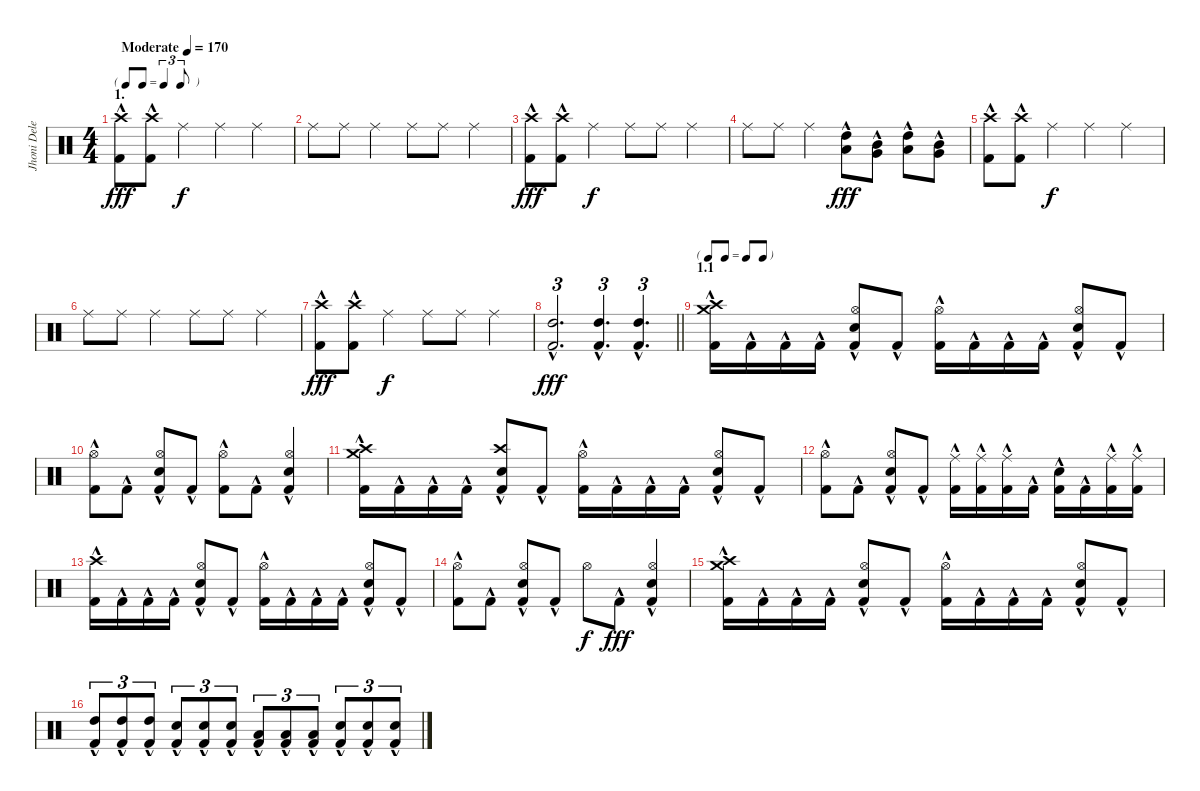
\track ("Jhoni Delenger" "Jhoni Dele") {instrument percussion}
\staff {score}
\articulation defaults
\ts (4 4)
\tf triplet8th
\section ("" "1.")
\tempo (170 "Moderate")
\clef neutral
\ks c
("Kick (hit) 2"{hac} "Crash high (hit)").8{dy fff} ("Kick (hit) 2"{hac} "Crash high (hit)").8 "Ride (middle)".4{dy f} "Ride (middle)".4 "Ride (middle)".4 |
"Ride (middle)".8 "Ride (middle)".8 "Ride (middle)".4 "Ride (middle)".8 "Ride (middle)".8 "Ride (middle)".4 |
("Kick (hit) 2"{hac} "Crash high (hit)").8{dy fff} ("Kick (hit) 2"{hac} "Crash high (hit)").8 "Ride (middle)".4{dy f} "Ride (middle)".8 "Ride (middle)".8 "Ride (middle)".4 |
"Ride (middle)".8 "Ride (middle)".8 "Ride (middle)".4 ("High Tom (hit)" "Low Tom (hit)"{hac}).8{dy fff} ("Mid Tom (hit)"{hac} "Very Low Tom (hit)"{hac}).8 ("High Tom (hit)"{hac} "Low Tom (hit)"{hac}).8 ("Mid Tom (hit)"{hac} "Very Low Tom (hit)"{hac}).8 |
("Kick (hit) 2"{hac} "Crash high (hit)").8 ("Kick (hit) 2"{hac} "Crash high (hit)").8 "Ride (middle)".4{dy f} "Ride (middle)".4 "Ride (middle)".4 |
"Ride (middle)".8 "Ride (middle)".8 "Ride (middle)".4 "Ride (middle)".8 "Ride (middle)".8 "Ride (middle)".4 |
("Kick (hit) 2"{hac} "Crash high (hit)").8{dy fff} ("Kick (hit) 2"{hac} "Crash high (hit)").8 "Ride (middle)".4{dy f} "Ride (middle)".8 "Ride (middle)".8 "Ride (middle)".4 |
\barLineRight lightlight
("Kick (hit) 2"{hac} "High Tom (hit)").2{d tu (3 2) dy fff} ("Kick (hit) 2"{hac} "High Tom (hit)").4{d tu (3 2)} ("Kick (hit) 2"{hac} "High Tom (hit)").4{d tu (3 2)} |
\tf none
\section ("" "1.1")
("Crash high (hit)" "Kick (hit) 2"{hac} "Crash medium (hit)").16{volume 16} "Kick (hit) 2"{hac}.16 "Kick (hit) 2"{hac}.16 "Kick (hit) 2"{hac}.16 ("Hi-Hat (open)" "Snare (hit) 2" "Kick (hit) 2"{hac}).8 "Kick (hit) 2"{hac}.8 ("Hi-Hat (open)" "Kick (hit) 2"{hac}).16 "Kick (hit) 2"{hac}.16 "Kick (hit) 2"{hac}.16 "Kick (hit) 2"{hac}.16 ("Hi-Hat (open)" "Snare (hit) 2" "Kick (hit) 2"{hac}).8 "Kick (hit) 2"{hac}.8 |
("Hi-Hat (open)" "Kick (hit) 2"{hac}).8 "Kick (hit) 2"{hac}.8 ("Hi-Hat (open)" "Snare (hit) 2" "Kick (hit) 2"{hac}).8 "Kick (hit) 2"{hac}.8 ("Hi-Hat (open)" "Kick (hit) 2"{hac}).8 "Kick (hit) 2"{hac}.8 ("Hi-Hat (open)" "Snare (hit) 2" "Kick (hit) 2"{hac}).4 |
("Crash high (hit)" "Kick (hit) 2"{hac} "Crash medium (hit)").16 "Kick (hit) 2"{hac}.16 "Kick (hit) 2"{hac}.16 "Kick (hit) 2"{hac}.16 ("Crash high (hit)" "Snare (hit) 2" "Kick (hit) 2"{hac}).8 "Kick (hit) 2"{hac}.8 ("Hi-Hat (open)" "Kick (hit) 2"{hac}).16 "Kick (hit) 2"{hac}.16 "Kick (hit) 2"{hac}.16 "Kick (hit) 2"{hac}.16 ("Hi-Hat (open)" "Snare (hit) 2" "Kick (hit) 2"{hac}).8 "Kick (hit) 2"{hac}.8 |
("Hi-Hat (open)" "Kick (hit) 2"{hac}).8 "Kick (hit) 2"{hac}.8 ("Hi-Hat (open)" "Snare (hit) 2" "Kick (hit) 2"{hac}).8 "Kick (hit) 2"{hac}.8 ("Ride (middle)" "Kick (hit) 2"{hac}).16 ("Kick (hit) 2"{hac} "Ride (middle)").16 ("Kick (hit) 2"{hac} "Ride (middle)").16 "Kick (hit) 2"{hac}.16 ("Snare (hit) 2" "Kick (hit) 2"{hac}).16 "Kick (hit) 2"{hac}.16 ("Kick (hit) 2"{hac} "Ride (middle)").16 ("Kick (hit) 2"{hac} "Ride (middle)").16 |
("Crash high (hit)" "Kick (hit) 2"{hac}).16 "Kick (hit) 2"{hac}.16 "Kick (hit) 2"{hac}.16 "Kick (hit) 2"{hac}.16 ("Hi-Hat (open)" "Snare (hit) 2" "Kick (hit) 2"{hac}).8 "Kick (hit) 2"{hac}.8 ("Hi-Hat (open)" "Kick (hit) 2"{hac}).16 "Kick (hit) 2"{hac}.16 "Kick (hit) 2"{hac}.16 "Kick (hit) 2"{hac}.16 ("Hi-Hat (open)" "Snare (hit) 2" "Kick (hit) 2"{hac}).8 "Kick (hit) 2"{hac}.8 |
("Hi-Hat (open)" "Kick (hit) 2"{hac}).8 "Kick (hit) 2"{hac}.8 ("Hi-Hat (open)" "Snare (hit) 2" "Kick (hit) 2"{hac}).8 "Kick (hit) 2"{hac}.8 "Hi-Hat (open)".8{dy f} "Kick (hit) 2"{hac}.8{dy fff} ("Hi-Hat (open)" "Snare (hit) 2" "Kick (hit) 2"{hac}).4 |
("Crash high (hit)" "Kick (hit) 2"{hac} "Crash medium (hit)").16 "Kick (hit) 2"{hac}.16 "Kick (hit) 2"{hac}.16 "Kick (hit) 2"{hac}.16 ("Hi-Hat (open)" "Snare (hit) 2" "Kick (hit) 2"{hac}).8 "Kick (hit) 2"{hac}.8 ("Hi-Hat (open)" "Kick (hit) 2"{hac}).16 "Kick (hit) 2"{hac}.16 "Kick (hit) 2"{hac}.16 "Kick (hit) 2"{hac}.16 ("Hi-Hat (open)" "Snare (hit) 2" "Kick (hit) 2"{hac}).8 "Kick (hit) 2"{hac}.8 |
("Kick (hit) 2"{hac} "High Tom (hit)"{hac}).8{tu (3 2)} ("Kick (hit) 2"{hac} "High Tom (hit)"{hac}).8{tu (3 2)} ("Kick (hit) 2"{hac} "High Tom (hit)"{hac}).8{tu (3 2)} ("Kick (hit) 2"{hac} "Snare (hit) 2").8{tu (3 2)} ("Kick (hit) 2"{hac} "Snare (hit) 2").8{tu (3 2)} ("Kick (hit) 2"{hac} "Snare (hit) 2").8{tu (3 2)} ("Kick (hit) 2"{hac} "Low Tom (hit)"{hac}).8{tu (3 2)} ("Kick (hit) 2"{hac} "Low Tom (hit)"{hac}).8{tu (3 2)} ("Kick (hit) 2"{hac} "Low Tom (hit)"{hac}).8{tu (3 2)} ("Kick (hit) 2"{hac} "Snare (hit) 2").8{tu (3 2)} ("Kick (hit) 2"{hac} "Snare (hit) 2").8{tu (3 2)} ("Kick (hit) 2"{hac} "Snare (hit) 2"{hac}).8{tu (3 2)}
